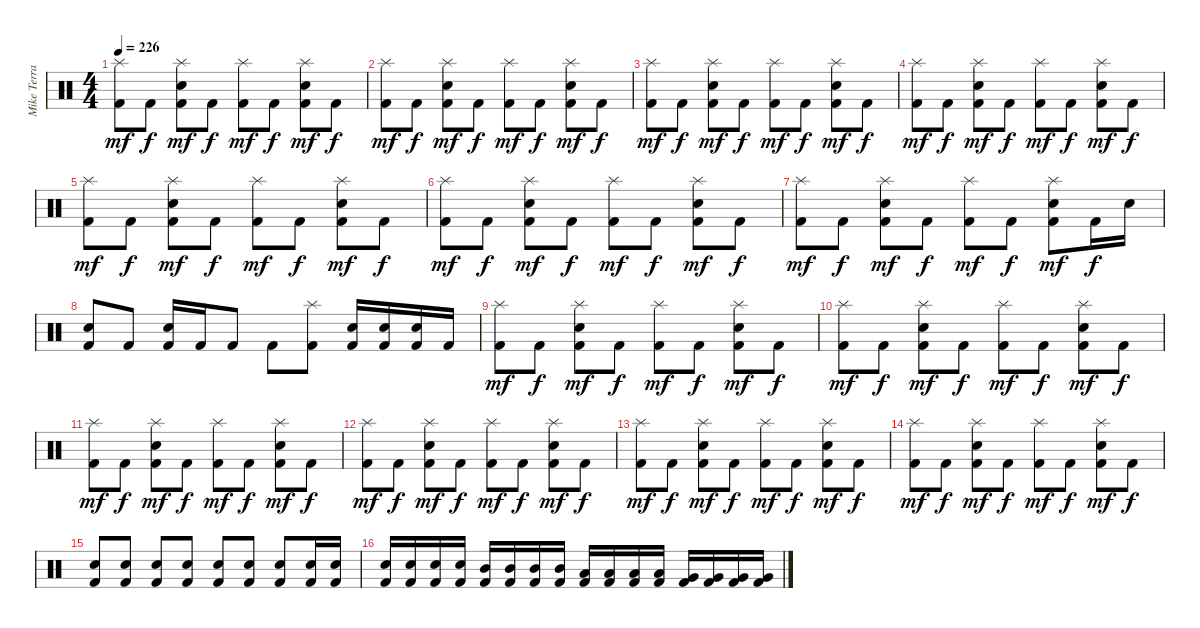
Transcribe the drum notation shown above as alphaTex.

\track ("Mike Terrana" "Mike Terra") {instrument percussion}
\staff {score}
\articulation defaults
\ts (4 4)
\tempo 226
\clef neutral
\ks c
("Splash (hit)" "Kick (hit) 2").8{dy mf} "Kick (hit) 2".8{dy f} ("Splash (hit)" "Snare (hit) 2" "Kick (hit) 2").8{dy mf} "Kick (hit) 2".8{dy f} ("Splash (hit)" "Kick (hit) 2").8{dy mf} "Kick (hit) 2".8{dy f} ("Splash (hit)" "Snare (hit) 2" "Kick (hit) 2").8{dy mf} "Kick (hit) 2".8{dy f} |
("Splash (hit)" "Kick (hit) 2").8{dy mf} "Kick (hit) 2".8{dy f} ("Splash (hit)" "Snare (hit) 2" "Kick (hit) 2").8{dy mf} "Kick (hit) 2".8{dy f} ("Splash (hit)" "Kick (hit) 2").8{dy mf} "Kick (hit) 2".8{dy f} ("Splash (hit)" "Snare (hit) 2" "Kick (hit) 2").8{dy mf} "Kick (hit) 2".8{dy f} |
("Splash (hit)" "Kick (hit) 2").8{dy mf} "Kick (hit) 2".8{dy f} ("Splash (hit)" "Snare (hit) 2" "Kick (hit) 2").8{dy mf} "Kick (hit) 2".8{dy f} ("Splash (hit)" "Kick (hit) 2").8{dy mf} "Kick (hit) 2".8{dy f} ("Splash (hit)" "Snare (hit) 2" "Kick (hit) 2").8{dy mf} "Kick (hit) 2".8{dy f} |
("Splash (hit)" "Kick (hit) 2").8{dy mf} "Kick (hit) 2".8{dy f} ("Splash (hit)" "Snare (hit) 2" "Kick (hit) 2").8{dy mf} "Kick (hit) 2".8{dy f} ("Splash (hit)" "Kick (hit) 2").8{dy mf} "Kick (hit) 2".8{dy f} ("Splash (hit)" "Snare (hit) 2" "Kick (hit) 2").8{dy mf} "Kick (hit) 2".8{dy f} |
("Splash (hit)" "Kick (hit) 2").8{dy mf} "Kick (hit) 2".8{dy f} ("Splash (hit)" "Snare (hit) 2" "Kick (hit) 2").8{dy mf} "Kick (hit) 2".8{dy f} ("Splash (hit)" "Kick (hit) 2").8{dy mf} "Kick (hit) 2".8{dy f} ("Splash (hit)" "Snare (hit) 2" "Kick (hit) 2").8{dy mf} "Kick (hit) 2".8{dy f} |
("Splash (hit)" "Kick (hit) 2").8{dy mf} "Kick (hit) 2".8{dy f} ("Splash (hit)" "Snare (hit) 2" "Kick (hit) 2").8{dy mf} "Kick (hit) 2".8{dy f} ("Splash (hit)" "Kick (hit) 2").8{dy mf} "Kick (hit) 2".8{dy f} ("Splash (hit)" "Snare (hit) 2" "Kick (hit) 2").8{dy mf} "Kick (hit) 2".8{dy f} |
("Splash (hit)" "Kick (hit) 2").8{dy mf} "Kick (hit) 2".8{dy f} ("Splash (hit)" "Snare (hit) 2" "Kick (hit) 2").8{dy mf} "Kick (hit) 2".8{dy f} ("Splash (hit)" "Kick (hit) 2").8{dy mf} "Kick (hit) 2".8{dy f} ("Splash (hit)" "Snare (hit) 2" "Kick (hit) 2").8{dy mf} "Kick (hit) 2".16{dy f} "Snare (hit) 2".16 |
("Snare (hit) 2" "Kick (hit) 2").8 "Kick (hit) 2".8 ("Snare (hit) 2" "Kick (hit) 2").16 "Kick (hit) 2".16 "Kick (hit) 2".8 "Kick (hit) 2".8 ("Splash (hit)" "Kick (hit) 2").8 ("Snare (hit) 2" "Kick (hit) 2").16 ("Snare (hit) 2" "Kick (hit) 2").16 ("Snare (hit) 2" "Kick (hit) 2").16 "Kick (hit) 2".16 |
("Splash (hit)" "Kick (hit) 2").8{dy mf} "Kick (hit) 2".8{dy f} ("Splash (hit)" "Snare (hit) 2" "Kick (hit) 2").8{dy mf} "Kick (hit) 2".8{dy f} ("Splash (hit)" "Kick (hit) 2").8{dy mf} "Kick (hit) 2".8{dy f} ("Splash (hit)" "Snare (hit) 2" "Kick (hit) 2").8{dy mf} "Kick (hit) 2".8{dy f} |
("Splash (hit)" "Kick (hit) 2").8{dy mf} "Kick (hit) 2".8{dy f} ("Splash (hit)" "Snare (hit) 2" "Kick (hit) 2").8{dy mf} "Kick (hit) 2".8{dy f} ("Splash (hit)" "Kick (hit) 2").8{dy mf} "Kick (hit) 2".8{dy f} ("Splash (hit)" "Snare (hit) 2" "Kick (hit) 2").8{dy mf} "Kick (hit) 2".8{dy f} |
("Splash (hit)" "Kick (hit) 2").8{dy mf} "Kick (hit) 2".8{dy f} ("Splash (hit)" "Snare (hit) 2" "Kick (hit) 2").8{dy mf} "Kick (hit) 2".8{dy f} ("Splash (hit)" "Kick (hit) 2").8{dy mf} "Kick (hit) 2".8{dy f} ("Splash (hit)" "Snare (hit) 2" "Kick (hit) 2").8{dy mf} "Kick (hit) 2".8{dy f} |
("Splash (hit)" "Kick (hit) 2").8{dy mf} "Kick (hit) 2".8{dy f} ("Splash (hit)" "Snare (hit) 2" "Kick (hit) 2").8{dy mf} "Kick (hit) 2".8{dy f} ("Splash (hit)" "Kick (hit) 2").8{dy mf} "Kick (hit) 2".8{dy f} ("Splash (hit)" "Snare (hit) 2" "Kick (hit) 2").8{dy mf} "Kick (hit) 2".8{dy f} |
("Splash (hit)" "Kick (hit) 2").8{dy mf} "Kick (hit) 2".8{dy f} ("Splash (hit)" "Snare (hit) 2" "Kick (hit) 2").8{dy mf} "Kick (hit) 2".8{dy f} ("Splash (hit)" "Kick (hit) 2").8{dy mf} "Kick (hit) 2".8{dy f} ("Splash (hit)" "Snare (hit) 2" "Kick (hit) 2").8{dy mf} "Kick (hit) 2".8{dy f} |
("Splash (hit)" "Kick (hit) 2").8{dy mf} "Kick (hit) 2".8{dy f} ("Splash (hit)" "Snare (hit) 2" "Kick (hit) 2").8{dy mf} "Kick (hit) 2".8{dy f} ("Splash (hit)" "Kick (hit) 2").8{dy mf} "Kick (hit) 2".8{dy f} ("Splash (hit)" "Snare (hit) 2" "Kick (hit) 2").8{dy mf} "Kick (hit) 2".8{dy f} |
("Snare (hit) 2" "Kick (hit) 2").8 ("Snare (hit) 2" "Kick (hit) 2").8 ("Snare (hit) 2" "Kick (hit) 2").8 ("Snare (hit) 2" "Kick (hit) 2").8 ("Snare (hit) 2" "Kick (hit) 2").8 ("Snare (hit) 2" "Kick (hit) 2").8 ("Snare (hit) 2" "Kick (hit) 2").8 ("Snare (hit) 2" "Kick (hit) 2").16 ("Snare (hit) 2" "Kick (hit) 2").16 |
("Snare (hit) 2" "Kick (hit) 2").16 ("Snare (hit) 2" "Kick (hit) 2").16 ("Snare (hit) 2" "Kick (hit) 2").16 ("Snare (hit) 2" "Kick (hit) 2").16 ("Mid Tom (hit)" "Kick (hit) 2").16 ("Mid Tom (hit)" "Kick (hit) 2").16 ("Mid Tom (hit)" "Kick (hit) 2").16 ("Mid Tom (hit)" "Kick (hit) 2").16 ("Low Tom (hit)" "Kick (hit) 2").16 ("Low Tom (hit)" "Kick (hit) 2").16 ("Low Tom (hit)" "Kick (hit) 2").16 ("Low Tom (hit)" "Kick (hit) 2").16 ("Very Low Tom (hit)" "Kick (hit) 2").16 ("Very Low Tom (hit)" "Kick (hit) 2").16 ("Very Low Tom (hit)" "Kick (hit) 2").16 ("Very Low Tom (hit)" "Kick (hit) 2").16
